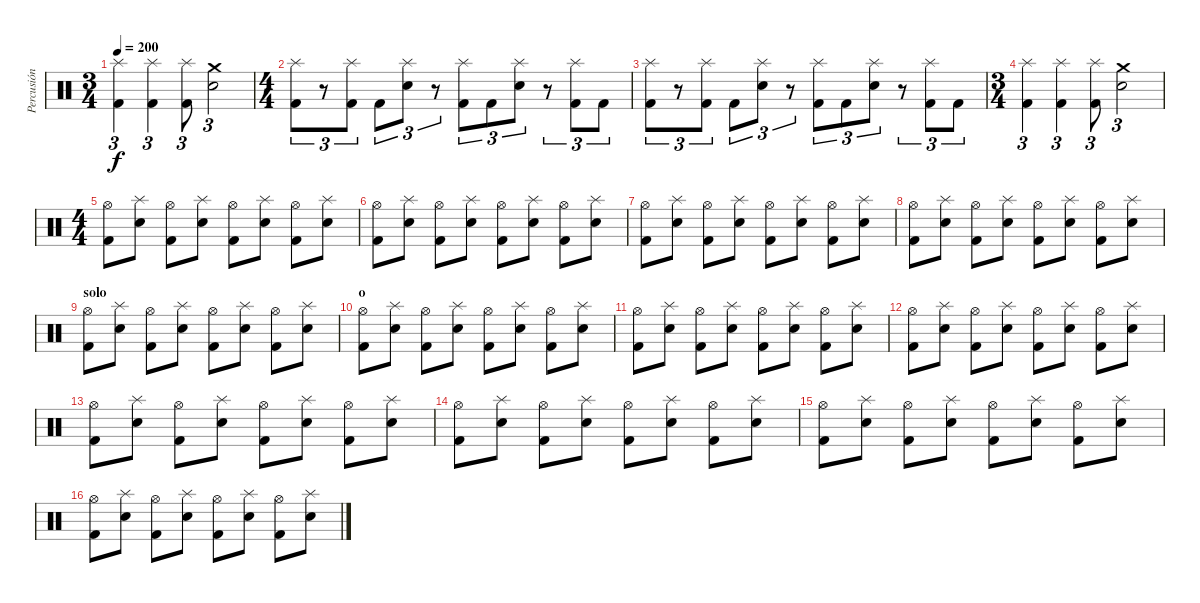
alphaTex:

\track ("Percusión" "Percusión") {instrument percussion}
\staff {score}
\articulation defaults
\ts (3 4)
\tempo 200
\clef neutral
\ks c
("Splash (hit)" "Kick (hit) 2").4{tu (3 2) dy f} ("Splash (hit)" "Kick (hit) 2").4{tu (3 2)} ("Splash (hit)" "Kick (hit) 2").8{tu (3 2)} ("Crash medium (hit)" "Snare (hit) 2").2{tu (3 2)} |
\ts (4 4)
("Splash (hit)" "Kick (hit) 2").8{tu (3 2)} r.8{tu (3 2)} ("Splash (hit)" "Kick (hit) 2").8{tu (3 2)} "Kick (hit) 2".8{tu (3 2)} ("Splash (hit)" "Snare (hit) 2").8{tu (3 2)} r.8{tu (3 2)} ("Splash (hit)" "Kick (hit) 2").8{tu (3 2)} "Kick (hit) 2".8{tu (3 2)} ("Splash (hit)" "Snare (hit) 2").8{tu (3 2)} r.8{tu (3 2)} ("Splash (hit)" "Kick (hit) 2").8{tu (3 2)} "Kick (hit) 2".8{tu (3 2)} |
("Splash (hit)" "Kick (hit) 2").8{tu (3 2)} r.8{tu (3 2)} ("Splash (hit)" "Kick (hit) 2").8{tu (3 2)} "Kick (hit) 2".8{tu (3 2)} ("Splash (hit)" "Snare (hit) 2").8{tu (3 2)} r.8{tu (3 2)} ("Splash (hit)" "Kick (hit) 2").8{tu (3 2)} "Kick (hit) 2".8{tu (3 2)} ("Splash (hit)" "Snare (hit) 2").8{tu (3 2)} r.8{tu (3 2)} ("Splash (hit)" "Kick (hit) 2").8{tu (3 2)} "Kick (hit) 2".8{tu (3 2)} |
\ts (3 4)
("Splash (hit)" "Kick (hit) 2").4{tu (3 2)} ("Splash (hit)" "Kick (hit) 2").4{tu (3 2)} ("Splash (hit)" "Kick (hit) 2").8{tu (3 2)} ("Crash medium (hit)" "Snare (hit) 2").2{tu (3 2)} |
\ts (4 4)
("Hi-Hat (open)" "Kick (hit) 2").8 ("Splash (hit)" "Snare (hit) 2").8 ("Hi-Hat (open)" "Kick (hit) 2").8 ("Splash (hit)" "Snare (hit) 2").8 ("Hi-Hat (open)" "Kick (hit) 2").8 ("Splash (hit)" "Snare (hit) 2").8 ("Hi-Hat (open)" "Kick (hit) 2").8 ("Splash (hit)" "Snare (hit) 2").8 |
("Hi-Hat (open)" "Kick (hit) 2").8 ("Splash (hit)" "Snare (hit) 2").8 ("Hi-Hat (open)" "Kick (hit) 2").8 ("Splash (hit)" "Snare (hit) 2").8 ("Hi-Hat (open)" "Kick (hit) 2").8 ("Splash (hit)" "Snare (hit) 2").8 ("Hi-Hat (open)" "Kick (hit) 2").8 ("Splash (hit)" "Snare (hit) 2").8 |
("Hi-Hat (open)" "Kick (hit) 2").8 ("Splash (hit)" "Snare (hit) 2").8 ("Hi-Hat (open)" "Kick (hit) 2").8 ("Splash (hit)" "Snare (hit) 2").8 ("Hi-Hat (open)" "Kick (hit) 2").8 ("Splash (hit)" "Snare (hit) 2").8 ("Hi-Hat (open)" "Kick (hit) 2").8 ("Splash (hit)" "Snare (hit) 2").8 |
("Hi-Hat (open)" "Kick (hit) 2").8 ("Splash (hit)" "Snare (hit) 2").8 ("Hi-Hat (open)" "Kick (hit) 2").8 ("Splash (hit)" "Snare (hit) 2").8 ("Hi-Hat (open)" "Kick (hit) 2").8 ("Splash (hit)" "Snare (hit) 2").8 ("Hi-Hat (open)" "Kick (hit) 2").8 ("Splash (hit)" "Snare (hit) 2").8 |
\section ("" "solo")
("Hi-Hat (open)" "Kick (hit) 2").8 ("Splash (hit)" "Snare (hit) 2").8 ("Hi-Hat (open)" "Kick (hit) 2").8 ("Splash (hit)" "Snare (hit) 2").8 ("Hi-Hat (open)" "Kick (hit) 2").8 ("Splash (hit)" "Snare (hit) 2").8 ("Hi-Hat (open)" "Kick (hit) 2").8 ("Splash (hit)" "Snare (hit) 2").8 |
\section ("" "o")
("Hi-Hat (open)" "Kick (hit) 2").8 ("Splash (hit)" "Snare (hit) 2").8 ("Hi-Hat (open)" "Kick (hit) 2").8 ("Splash (hit)" "Snare (hit) 2").8 ("Hi-Hat (open)" "Kick (hit) 2").8 ("Splash (hit)" "Snare (hit) 2").8 ("Hi-Hat (open)" "Kick (hit) 2").8 ("Splash (hit)" "Snare (hit) 2").8 |
("Hi-Hat (open)" "Kick (hit) 2").8 ("Splash (hit)" "Snare (hit) 2").8 ("Hi-Hat (open)" "Kick (hit) 2").8 ("Splash (hit)" "Snare (hit) 2").8 ("Hi-Hat (open)" "Kick (hit) 2").8 ("Splash (hit)" "Snare (hit) 2").8 ("Hi-Hat (open)" "Kick (hit) 2").8 ("Splash (hit)" "Snare (hit) 2").8 |
("Hi-Hat (open)" "Kick (hit) 2").8 ("Splash (hit)" "Snare (hit) 2").8 ("Hi-Hat (open)" "Kick (hit) 2").8 ("Splash (hit)" "Snare (hit) 2").8 ("Hi-Hat (open)" "Kick (hit) 2").8 ("Splash (hit)" "Snare (hit) 2").8 ("Hi-Hat (open)" "Kick (hit) 2").8 ("Splash (hit)" "Snare (hit) 2").8 |
("Hi-Hat (open)" "Kick (hit) 2").8 ("Splash (hit)" "Snare (hit) 2").8 ("Hi-Hat (open)" "Kick (hit) 2").8 ("Splash (hit)" "Snare (hit) 2").8 ("Hi-Hat (open)" "Kick (hit) 2").8 ("Splash (hit)" "Snare (hit) 2").8 ("Hi-Hat (open)" "Kick (hit) 2").8 ("Splash (hit)" "Snare (hit) 2").8 |
("Hi-Hat (open)" "Kick (hit) 2").8 ("Splash (hit)" "Snare (hit) 2").8 ("Hi-Hat (open)" "Kick (hit) 2").8 ("Splash (hit)" "Snare (hit) 2").8 ("Hi-Hat (open)" "Kick (hit) 2").8 ("Splash (hit)" "Snare (hit) 2").8 ("Hi-Hat (open)" "Kick (hit) 2").8 ("Splash (hit)" "Snare (hit) 2").8 |
("Hi-Hat (open)" "Kick (hit) 2").8 ("Splash (hit)" "Snare (hit) 2").8 ("Hi-Hat (open)" "Kick (hit) 2").8 ("Splash (hit)" "Snare (hit) 2").8 ("Hi-Hat (open)" "Kick (hit) 2").8 ("Splash (hit)" "Snare (hit) 2").8 ("Hi-Hat (open)" "Kick (hit) 2").8 ("Splash (hit)" "Snare (hit) 2").8 |
("Hi-Hat (open)" "Kick (hit) 2").8 ("Splash (hit)" "Snare (hit) 2").8 ("Hi-Hat (open)" "Kick (hit) 2").8 ("Splash (hit)" "Snare (hit) 2").8 ("Hi-Hat (open)" "Kick (hit) 2").8 ("Splash (hit)" "Snare (hit) 2").8 ("Hi-Hat (open)" "Kick (hit) 2").8 ("Splash (hit)" "Snare (hit) 2").8
